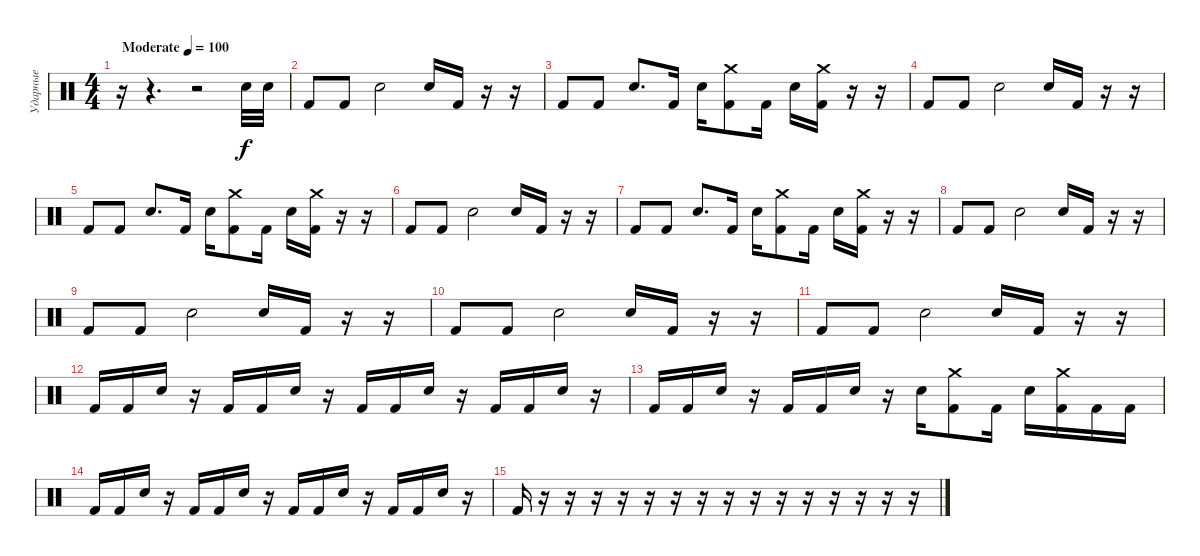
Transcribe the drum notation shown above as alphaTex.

\track ("Ударные" "Ударные") {instrument percussion}
\staff {score}
\articulation defaults
\ts (4 4)
\tempo (100 "Moderate")
\clef neutral
\ks c
r.16{dy f} r.4{d} r.2 "Electric Snare (hit)".32 "Electric Snare (hit)".32 |
"Kick (hit) 2".8 "Kick (hit) 2".8 "Electric Snare (hit)".2 "Electric Snare (hit)".16 "Kick (hit) 2".16 r.16 r.16 |
"Kick (hit) 2".8 "Kick (hit) 2".8 "Electric Snare (hit)".8{d} "Kick (hit) 2".16 "Electric Snare (hit)".16 ("Kick (hit) 2" "Crash medium (hit)").8 "Kick (hit) 2".16 "Electric Snare (hit)".16 ("Kick (hit) 2" "Crash medium (hit)").16 r.16 r.16 |
"Kick (hit) 2".8 "Kick (hit) 2".8 "Electric Snare (hit)".2 "Electric Snare (hit)".16 "Kick (hit) 2".16 r.16 r.16 |
"Kick (hit) 2".8 "Kick (hit) 2".8 "Electric Snare (hit)".8{d} "Kick (hit) 2".16 "Electric Snare (hit)".16 ("Kick (hit) 2" "Crash medium (hit)").8 "Kick (hit) 2".16 "Electric Snare (hit)".16 ("Kick (hit) 2" "Crash medium (hit)").16 r.16 r.16 |
"Kick (hit) 2".8 "Kick (hit) 2".8 "Electric Snare (hit)".2 "Electric Snare (hit)".16 "Kick (hit) 2".16 r.16 r.16 |
"Kick (hit) 2".8 "Kick (hit) 2".8 "Electric Snare (hit)".8{d} "Kick (hit) 2".16 "Electric Snare (hit)".16 ("Kick (hit) 2" "Crash medium (hit)").8 "Kick (hit) 2".16 "Electric Snare (hit)".16 ("Kick (hit) 2" "Crash medium (hit)").16 r.16 r.16 |
"Kick (hit) 2".8 "Kick (hit) 2".8 "Electric Snare (hit)".2 "Electric Snare (hit)".16 "Kick (hit) 2".16 r.16 r.16 |
"Kick (hit) 2".8 "Kick (hit) 2".8 "Electric Snare (hit)".2 "Electric Snare (hit)".16 "Kick (hit) 2".16 r.16 r.16 |
"Kick (hit) 2".8 "Kick (hit) 2".8 "Electric Snare (hit)".2 "Electric Snare (hit)".16 "Kick (hit) 2".16 r.16 r.16 |
"Kick (hit) 2".8 "Kick (hit) 2".8 "Electric Snare (hit)".2 "Electric Snare (hit)".16 "Kick (hit) 2".16 r.16 r.16 |
"Kick (hit) 2".16 "Kick (hit) 2".16 "Electric Snare (hit)".16 r.16 "Kick (hit) 2".16 "Kick (hit) 2".16 "Electric Snare (hit)".16 r.16 "Kick (hit) 2".16 "Kick (hit) 2".16 "Electric Snare (hit)".16 r.16 "Kick (hit) 2".16 "Kick (hit) 2".16 "Electric Snare (hit)".16 r.16 |
"Kick (hit) 2".16 "Kick (hit) 2".16 "Electric Snare (hit)".16 r.16 "Kick (hit) 2".16 "Kick (hit) 2".16 "Electric Snare (hit)".16 r.16 "Electric Snare (hit)".16 ("Kick (hit) 2" "Crash medium (hit)").8 "Kick (hit) 2".16 "Electric Snare (hit)".16 ("Kick (hit) 2" "Crash medium (hit)").16 "Kick (hit) 2".16 "Kick (hit) 2".16 |
"Kick (hit) 2".16 "Kick (hit) 2".16 "Electric Snare (hit)".16 r.16 "Kick (hit) 2".16 "Kick (hit) 2".16 "Electric Snare (hit)".16 r.16 "Kick (hit) 2".16 "Kick (hit) 2".16 "Electric Snare (hit)".16 r.16 "Kick (hit) 2".16 "Kick (hit) 2".16 "Electric Snare (hit)".16 r.16 |
"Kick (hit) 2".16 r.16 r.16 r.16 r.16 r.16 r.16 r.16 r.16 r.16 r.16 r.16 r.16 r.16 r.16 r.16
